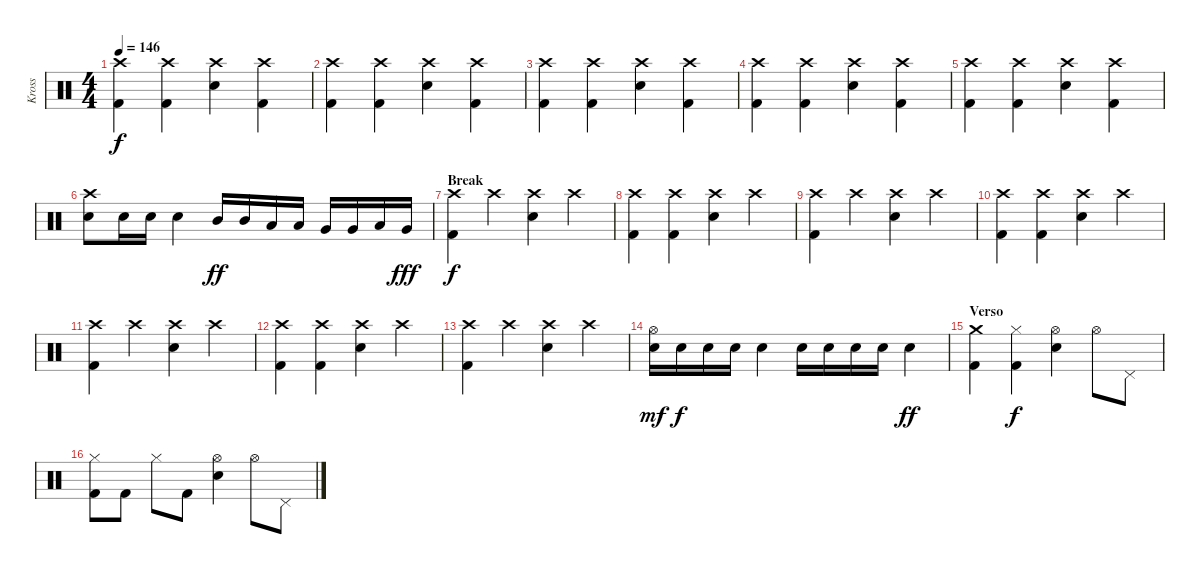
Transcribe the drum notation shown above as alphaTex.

\track ("Kross" "Kross") {instrument percussion}
\staff {score}
\articulation defaults
\ts (4 4)
\tempo 146
\clef neutral
\ks c
("Crash high (hit)" "Kick (hit) 2").4{dy f} ("Crash high (hit)" "Kick (hit) 2").4 ("Crash high (hit)" "Snare (hit) 2").4 ("Crash high (hit)" "Kick (hit) 2").4 |
("Crash high (hit)" "Kick (hit) 2").4 ("Crash high (hit)" "Kick (hit) 2").4 ("Crash high (hit)" "Snare (hit) 2").4 ("Crash high (hit)" "Kick (hit) 2").4 |
("Crash high (hit)" "Kick (hit) 2").4 ("Crash high (hit)" "Kick (hit) 2").4 ("Crash high (hit)" "Snare (hit) 2").4 ("Crash high (hit)" "Kick (hit) 2").4 |
("Crash high (hit)" "Kick (hit) 2").4 ("Crash high (hit)" "Kick (hit) 2").4 ("Crash high (hit)" "Snare (hit) 2").4 ("Crash high (hit)" "Kick (hit) 2").4 |
("Crash high (hit)" "Kick (hit) 2").4 ("Crash high (hit)" "Kick (hit) 2").4 ("Crash high (hit)" "Snare (hit) 2").4 ("Crash high (hit)" "Kick (hit) 2").4 |
("Crash high (hit)" "Snare (hit) 2").8 "Snare (hit) 2".16 "Snare (hit) 2".16 "Snare (hit) 2".4 "Mid Tom (hit)".16{dy ff} "Mid Tom (hit)".16 "Low Tom (hit)".16 "Low Tom (hit)".16 "Very Low Tom (hit)".16 "Very Low Tom (hit)".16 "Low Tom (hit)".16 "Very Low Tom (hit)".16{dy fff} |
\section ("" "Break")
("Crash high (hit)" "Kick (hit) 2").4{dy f} "Crash high (hit)".4 ("Crash high (hit)" "Snare (hit) 2").4 "Crash high (hit)".4 |
("Crash high (hit)" "Kick (hit) 2").4 ("Crash high (hit)" "Kick (hit) 2").4 ("Crash high (hit)" "Snare (hit) 2").4 "Crash high (hit)".4 |
("Crash high (hit)" "Kick (hit) 2").4 "Crash high (hit)".4 ("Crash high (hit)" "Snare (hit) 2").4 "Crash high (hit)".4 |
("Crash high (hit)" "Kick (hit) 2").4 ("Crash high (hit)" "Kick (hit) 2").4 ("Crash high (hit)" "Snare (hit) 2").4 "Crash high (hit)".4 |
("Crash high (hit)" "Kick (hit) 2").4 "Crash high (hit)".4 ("Crash high (hit)" "Snare (hit) 2").4 "Crash high (hit)".4 |
("Crash high (hit)" "Kick (hit) 2").4 ("Crash high (hit)" "Kick (hit) 2").4 ("Crash high (hit)" "Snare (hit) 2").4 "Crash high (hit)".4 |
("Crash high (hit)" "Kick (hit) 2").4 "Crash high (hit)".4 ("Crash high (hit)" "Snare (hit) 2").4 "Crash high (hit)".4 |
("Hi-Hat (open)" "Snare (hit) 2").16{dy mf} "Snare (hit) 2".16{dy f} "Snare (hit) 2".16 "Snare (hit) 2".16 "Snare (hit) 2".4 "Snare (hit) 2".16 "Snare (hit) 2".16 "Snare (hit) 2".16 "Snare (hit) 2".16 "Snare (hit) 2".4{dy ff} |
\section ("" "Verso")
("Crash medium (hit)" "Kick (hit) 2").4 ("Hi-Hat (closed)" "Kick (hit) 2").4{dy f} ("Hi-Hat (open)" "Snare (hit) 2").4 "Hi-Hat (open)".8 "Pedal Hi-Hat (hit)".8 |
("Hi-Hat (closed)" "Kick (hit) 2").8 "Kick (hit) 2".8 "Hi-Hat (closed)".8 "Kick (hit) 2".8 ("Hi-Hat (open)" "Snare (hit) 2").4 "Hi-Hat (open)".8 "Pedal Hi-Hat (hit)".8
